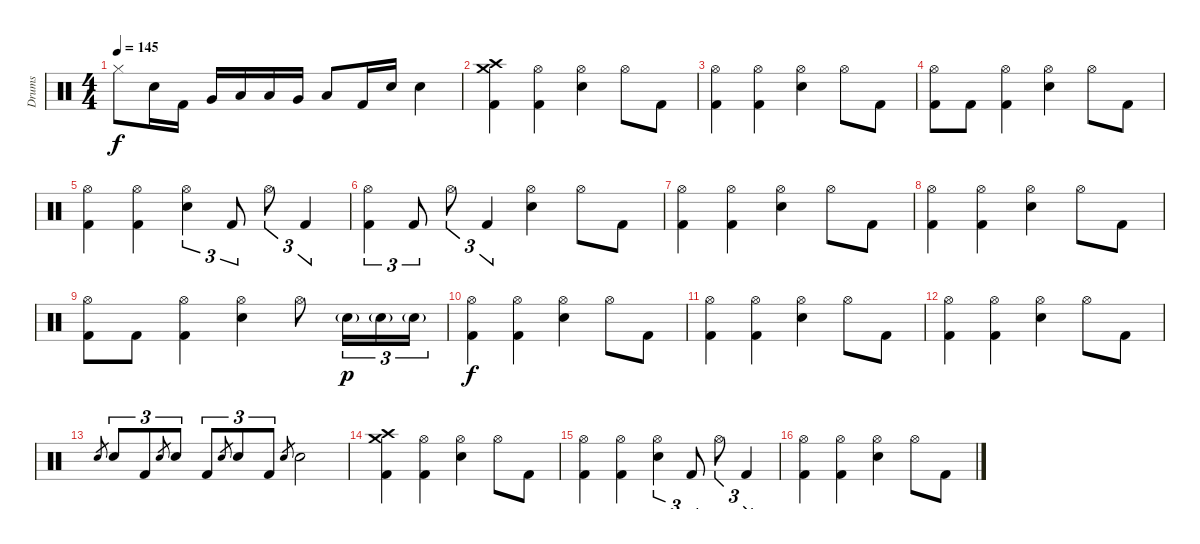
\track ("Drums" "Drums") {instrument percussion}
\staff {score}
\articulation defaults
\ts (4 4)
\tempo 145
\clef neutral
\ks c "Hi-Hat (closed)".8{dy f} "Electric Snare (hit)".16 "Kick (hit) 2".16 "Very Low Tom (hit)".16 "Low Tom (hit)".16 "Low Tom (hit)".16 "Very Low Tom (hit)".16 "Low Floor Tom (hit)".8 "Kick (hit) 2".16 "Electric Snare (hit)".16 "Electric Snare (hit)".4
|
("Crash medium (hit)" "Crash high (hit)" "Kick (hit) 2").4 ("Hi-Hat (open)" "Kick (hit) 2").4 ("Hi-Hat (open)" "Electric Snare (hit)").4 "Hi-Hat (open)".8 "Kick (hit) 2".8 |
("Hi-Hat (open)" "Kick (hit) 2").4 ("Hi-Hat (open)" "Kick (hit) 2").4 ("Hi-Hat (open)" "Electric Snare (hit)").4 "Hi-Hat (open)".8 "Kick (hit) 2".8 |
("Hi-Hat (open)" "Kick (hit) 2").8 "Kick (hit) 2".8 ("Hi-Hat (open)" "Kick (hit) 2").4 ("Hi-Hat (open)" "Electric Snare (hit)").4 "Hi-Hat (open)".8 "Kick (hit) 2".8 |
("Hi-Hat (open)" "Kick (hit) 2").4 ("Hi-Hat (open)" "Kick (hit) 2").4 ("Hi-Hat (open)" "Electric Snare (hit)").4{tu (3 2)} "Kick (hit) 2".8{tu (3 2)} "Hi-Hat (open)".8{tu (3 2)} "Kick (hit) 2".4{tu (3 2)} |
("Hi-Hat (open)" "Kick (hit) 2").4{tu (3 2)} "Kick (hit) 2".8{tu (3 2)} "Hi-Hat (open)".8{tu (3 2)} "Kick (hit) 2".4{tu (3 2)} ("Hi-Hat (open)" "Electric Snare (hit)").4 "Hi-Hat (open)".8 "Kick (hit) 2".8 |
("Hi-Hat (open)" "Kick (hit) 2").4 ("Hi-Hat (open)" "Kick (hit) 2").4 ("Hi-Hat (open)" "Electric Snare (hit)").4 "Hi-Hat (open)".8 "Kick (hit) 2".8 |
("Hi-Hat (open)" "Kick (hit) 2").4 ("Hi-Hat (open)" "Kick (hit) 2").4 ("Hi-Hat (open)" "Electric Snare (hit)").4 "Hi-Hat (open)".8 "Kick (hit) 2".8 |
("Hi-Hat (open)" "Kick (hit) 2").8 "Kick (hit) 2".8 ("Hi-Hat (open)" "Kick (hit) 2").4 ("Hi-Hat (open)" "Electric Snare (hit)").4 "Hi-Hat (open)".8 "Electric Snare (hit)"{g}.16{tu (3 2) dy p} "Electric Snare (hit)"{g}.16{tu (3 2)} "Electric Snare (hit)"{g}.16{tu (3 2)} |
("Hi-Hat (open)" "Kick (hit) 2").4{dy f} ("Hi-Hat (open)" "Kick (hit) 2").4 ("Hi-Hat (open)" "Electric Snare (hit)").4 "Hi-Hat (open)".8 "Kick (hit) 2".8 |
("Hi-Hat (open)" "Kick (hit) 2").4 ("Hi-Hat (open)" "Kick (hit) 2").4 ("Hi-Hat (open)" "Electric Snare (hit)").4 "Hi-Hat (open)".8 "Kick (hit) 2".8 |
("Hi-Hat (open)" "Kick (hit) 2").4 ("Hi-Hat (open)" "Kick (hit) 2").4 ("Hi-Hat (open)" "Electric Snare (hit)").4 "Hi-Hat (open)".8 "Kick (hit) 2".8 |
"Electric Snare (hit)".8{gr} "Electric Snare (hit)".8{tu (3 2)} "Kick (hit) 2".8{tu (3 2)} "Electric Snare (hit)".8{gr} "Electric Snare (hit)".8{tu (3 2)} "Kick (hit) 2".8{tu (3 2)} "Electric Snare (hit)".8{gr} "Electric Snare (hit)".8{tu (3 2)} "Kick (hit) 2".8{tu (3 2)} "Electric Snare (hit)".8{gr} "Electric Snare (hit)".2 |
("Crash medium (hit)" "Crash high (hit)" "Kick (hit) 2").4 ("Hi-Hat (open)" "Kick (hit) 2").4 ("Hi-Hat (open)" "Electric Snare (hit)").4 "Hi-Hat (open)".8 "Kick (hit) 2".8 |
("Hi-Hat (open)" "Kick (hit) 2").4 ("Hi-Hat (open)" "Kick (hit) 2").4 ("Hi-Hat (open)" "Electric Snare (hit)").4{tu (3 2)} "Kick (hit) 2".8{tu (3 2)} "Hi-Hat (open)".8{tu (3 2)} "Kick (hit) 2".4{tu (3 2)} |
("Hi-Hat (open)" "Kick (hit) 2").4 ("Hi-Hat (open)" "Kick (hit) 2").4 ("Hi-Hat (open)" "Electric Snare (hit)").4 "Hi-Hat (open)".8 "Kick (hit) 2".8
